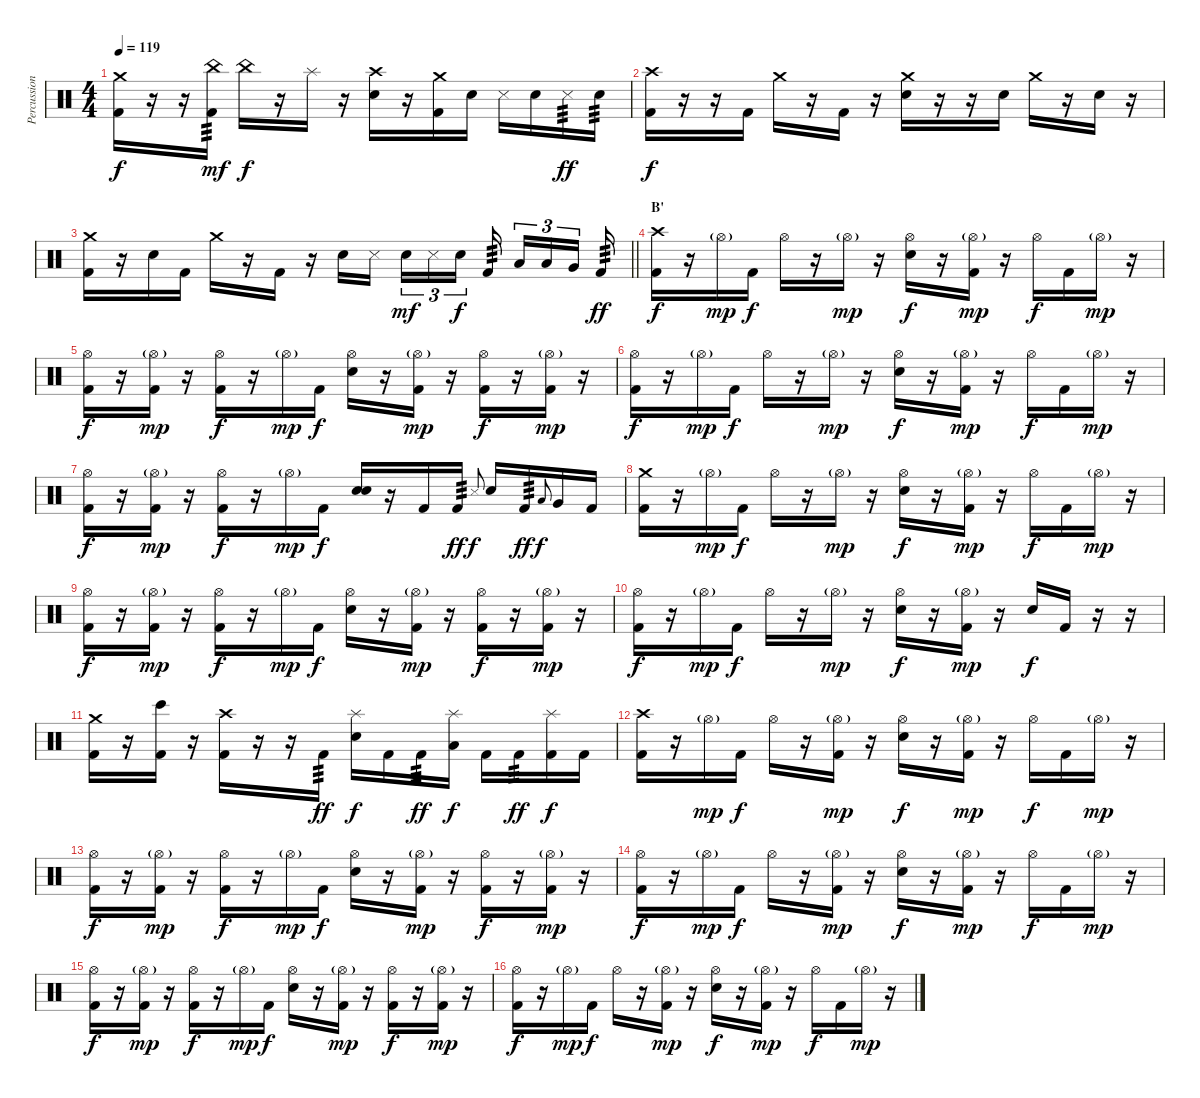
\track ("Percussion" "Percussion") {instrument percussion}
\staff {score}
\articulation defaults
\ts (4 4)
\tempo 119
\clef neutral
\ks c
("Crash medium (hit)" "Kick (hit) 2").16{dy f} r.16 r.16 ("China (hit)" "Kick (hit) 2").16{tp 3 dy mf} "China (hit)".16{dy f} r.16 "Splash (hit)".16 r.16 ("Crash high (hit)" "Snare (hit) 2").16 r.16 ("Crash medium (hit)" "Kick (hit) 2").16 "Snare (hit) 2".16 "Metronome (hit)".16 "Snare (hit) 2".16 "Metronome (hit)".16{tp 3 dy ff} "Snare (hit) 2".16{tp 3} |
("Crash high (hit)" "Kick (hit) 2").16{dy f} r.16 r.16 "Kick (hit) 2".16 "Crash medium (hit)".16 r.16 "Kick (hit) 2".16 r.16 ("Crash medium (hit)" "Snare (hit) 2").16 r.16 r.16 "Snare (hit) 2".16 "Crash medium (hit)".16 r.16 "Snare (hit) 2".16 r.16 |
\barLineRight lightlight
("Crash medium (hit)" "Kick (hit) 2").16 r.16 "Snare (hit) 2".16 "Kick (hit) 2".16 "Crash medium (hit)".16 r.16 "Kick (hit) 2".16 r.16 "Snare (hit) 2".16 "Metronome (hit)".16{beam splitsecondary} "Snare (hit) 2".16{tu (3 2) dy mf} "Metronome (hit)".16{tu (3 2)} "Snare (hit) 2".16{tu (3 2) dy f} "Kick (hit) 2".16{tp 3 beam splitsecondary} "Low Tom (hit)".16{tu (3 2)} "Low Tom (hit)".16{tu (3 2)} "Very Low Tom (hit)".16{tu (3 2) beam splitsecondary} "Kick (hit) 2".16{tp 3 dy ff} |
\section ("" "B'")
("Crash high (hit)" "Kick (hit) 2").16{dy f} r.16 "Hi-Hat (open)"{g}.16{dy mp} "Kick (hit) 2".16{dy f} "Hi-Hat (open)".16 r.16 "Hi-Hat (open)"{g}.16{dy mp} r.16 ("Hi-Hat (open)" "Snare (hit) 2").16{dy f} r.16 ("Hi-Hat (open)"{g} "Kick (hit) 2").16{dy mp} r.16 "Hi-Hat (open)".16{dy f} "Kick (hit) 2".16 "Hi-Hat (open)"{g}.16{dy mp} r.16 |
("Hi-Hat (open)" "Kick (hit) 2").16{dy f} r.16 ("Hi-Hat (open)"{g} "Kick (hit) 2").16{dy mp} r.16 ("Hi-Hat (open)" "Kick (hit) 2").16{dy f} r.16 "Hi-Hat (open)"{g}.16{dy mp} "Kick (hit) 2".16{dy f} ("Hi-Hat (open)" "Snare (hit) 2").16 r.16 ("Hi-Hat (open)"{g} "Kick (hit) 2").16{dy mp} r.16 ("Hi-Hat (open)" "Kick (hit) 2").16{dy f} r.16 ("Hi-Hat (open)"{g} "Kick (hit) 2").16{dy mp} r.16 |
("Hi-Hat (open)" "Kick (hit) 2").16{dy f} r.16 "Hi-Hat (open)"{g}.16{dy mp} "Kick (hit) 2".16{dy f} "Hi-Hat (open)".16 r.16 "Hi-Hat (open)"{g}.16{dy mp} r.16 ("Hi-Hat (open)" "Snare (hit) 2").16{dy f} r.16 ("Hi-Hat (open)"{g} "Kick (hit) 2").16{dy mp} r.16 "Hi-Hat (open)".16{dy f} "Kick (hit) 2".16 "Hi-Hat (open)"{g}.16{dy mp} r.16 |
("Hi-Hat (open)" "Kick (hit) 2").16{dy f} r.16 ("Hi-Hat (open)"{g} "Kick (hit) 2").16{dy mp} r.16 ("Hi-Hat (open)" "Kick (hit) 2").16{dy f} r.16 "Hi-Hat (open)"{g}.16{dy mp} "Kick (hit) 2".16{dy f} ("Snare (hit)" "Snare (hit) 2").16 r.16 "Kick (hit) 2".16 "Kick (hit) 2".16{tp 3 dy ff} "Metronome (hit)".8{gr onbeat dy f} "Snare (hit) 2".16 "Kick (hit) 2".16{tp 3 dy ff} "Low Tom (hit)".8{gr onbeat dy f} "Very Low Tom (hit)".16 "Kick (hit) 2".16 |
("Crash medium (hit)" "Kick (hit) 2").16 r.16 "Hi-Hat (open)"{g}.16{dy mp} "Kick (hit) 2".16{dy f} "Hi-Hat (open)".16 r.16 "Hi-Hat (open)"{g}.16{dy mp} r.16 ("Hi-Hat (open)" "Snare (hit) 2").16{dy f} r.16 ("Hi-Hat (open)"{g} "Kick (hit) 2").16{dy mp} r.16 "Hi-Hat (open)".16{dy f} "Kick (hit) 2".16 "Hi-Hat (open)"{g}.16{dy mp} r.16 |
("Hi-Hat (open)" "Kick (hit) 2").16{dy f} r.16 ("Hi-Hat (open)"{g} "Kick (hit) 2").16{dy mp} r.16 ("Hi-Hat (open)" "Kick (hit) 2").16{dy f} r.16 "Hi-Hat (open)"{g}.16{dy mp} "Kick (hit) 2".16{dy f} ("Hi-Hat (open)" "Snare (hit) 2").16 r.16 ("Hi-Hat (open)"{g} "Kick (hit) 2").16{dy mp} r.16 ("Hi-Hat (open)" "Kick (hit) 2").16{dy f} r.16 ("Hi-Hat (open)"{g} "Kick (hit) 2").16{dy mp} r.16 |
("Hi-Hat (open)" "Kick (hit) 2").16{dy f} r.16 "Hi-Hat (open)"{g}.16{dy mp} "Kick (hit) 2".16{dy f} "Hi-Hat (open)".16 r.16 "Hi-Hat (open)"{g}.16{dy mp} r.16 ("Hi-Hat (open)" "Snare (hit) 2").16{dy f} r.16 ("Hi-Hat (open)"{g} "Kick (hit) 2").16{dy mp} r.16 "Snare (hit)".16{dy f} "Kick (hit) 2".16 r.16 r.16 |
("Crash medium (hit)" "Kick (hit) 2").16 r.16 ("Bongo High (hit)" "Kick (hit) 2").16 r.16 ("Crash high (hit)" "Kick (hit) 2").16 r.16 r.16 "Kick (hit) 2".16{tp 3 dy ff} ("Splash (hit)" "Snare (hit) 2").16{dy f} "Kick (hit) 2".16 "Kick (hit) 2".16{tp 3 dy ff} ("Splash (hit)" "Low Tom (hit)").16{dy f} "Kick (hit) 2".16 "Kick (hit) 2".16{tp 3 dy ff} ("Splash (hit)" "Kick (hit) 2").16{dy f} "Kick (hit) 2".16 |
("Crash high (hit)" "Kick (hit) 2").16 r.16 "Hi-Hat (open)"{g}.16{dy mp} "Kick (hit) 2".16{dy f} "Hi-Hat (open)".16 r.16 ("Hi-Hat (open)"{g} "Kick (hit) 2").16{dy mp} r.16 ("Hi-Hat (open)" "Snare (hit) 2").16{dy f} r.16 ("Hi-Hat (open)"{g} "Kick (hit) 2").16{dy mp} r.16 "Hi-Hat (open)".16{dy f} "Kick (hit) 2".16 "Hi-Hat (open)"{g}.16{dy mp} r.16 |
("Hi-Hat (open)" "Kick (hit) 2").16{dy f} r.16 ("Hi-Hat (open)"{g} "Kick (hit) 2").16{dy mp} r.16 ("Hi-Hat (open)" "Kick (hit) 2").16{dy f} r.16 "Hi-Hat (open)"{g}.16{dy mp} "Kick (hit) 2".16{dy f} ("Hi-Hat (open)" "Snare (hit) 2").16 r.16 ("Hi-Hat (open)"{g} "Kick (hit) 2").16{dy mp} r.16 ("Hi-Hat (open)" "Kick (hit) 2").16{dy f} r.16 ("Hi-Hat (open)"{g} "Kick (hit) 2").16{dy mp} r.16 |
("Hi-Hat (open)" "Kick (hit) 2").16{dy f} r.16 "Hi-Hat (open)"{g}.16{dy mp} "Kick (hit) 2".16{dy f} "Hi-Hat (open)".16 r.16 ("Hi-Hat (open)"{g} "Kick (hit) 2").16{dy mp} r.16 ("Hi-Hat (open)" "Snare (hit) 2").16{dy f} r.16 ("Hi-Hat (open)"{g} "Kick (hit) 2").16{dy mp} r.16 "Hi-Hat (open)".16{dy f} "Kick (hit) 2".16 "Hi-Hat (open)"{g}.16{dy mp} r.16 |
("Hi-Hat (open)" "Kick (hit) 2").16{dy f} r.16 ("Hi-Hat (open)"{g} "Kick (hit) 2").16{dy mp} r.16 ("Hi-Hat (open)" "Kick (hit) 2").16{dy f} r.16 "Hi-Hat (open)"{g}.16{dy mp} "Kick (hit) 2".16{dy f} ("Hi-Hat (open)" "Snare (hit) 2").16 r.16 ("Hi-Hat (open)"{g} "Kick (hit) 2").16{dy mp} r.16 ("Hi-Hat (open)" "Kick (hit) 2").16{dy f} r.16 ("Hi-Hat (open)"{g} "Kick (hit) 2").16{dy mp} r.16 |
("Hi-Hat (open)" "Kick (hit) 2").16{dy f} r.16 "Hi-Hat (open)"{g}.16{dy mp} "Kick (hit) 2".16{dy f} "Hi-Hat (open)".16 r.16 ("Hi-Hat (open)"{g} "Kick (hit) 2").16{dy mp} r.16 ("Hi-Hat (open)" "Snare (hit) 2").16{dy f} r.16 ("Hi-Hat (open)"{g} "Kick (hit) 2").16{dy mp} r.16 "Hi-Hat (open)".16{dy f} "Kick (hit) 2".16 "Hi-Hat (open)"{g}.16{dy mp} r.16
